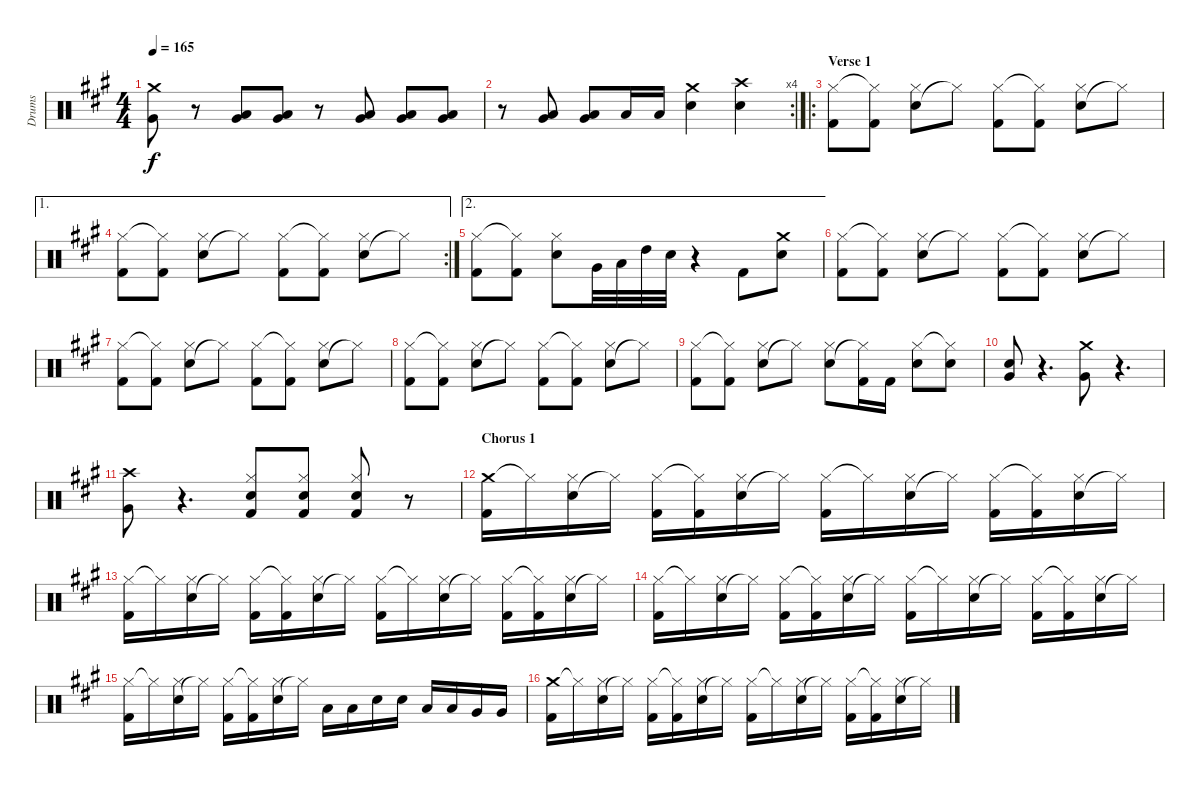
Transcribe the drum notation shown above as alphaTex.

\track ("Drums" "Drums") {instrument percussion}
\staff {score}
\articulation defaults
\ts (4 4)
\tempo 165
\clef neutral
\ks a
("Crash medium (hit)" "Very Low Tom (hit)").8{dy f} r.8 ("Low Tom (hit)" "Very Low Tom (hit)").8 ("Low Tom (hit)" "Very Low Tom (hit)").8 r.8 ("Low Tom (hit)" "Very Low Tom (hit)").8 ("Low Tom (hit)" "Very Low Tom (hit)").8 ("Low Tom (hit)" "Very Low Tom (hit)").8 |
\rc 4
r.8 ("Low Tom (hit)" "Very Low Tom (hit)").8 ("Low Tom (hit)" "Very Low Tom (hit)").8 "Low Tom (hit)".16 "Low Tom (hit)".16 ("Crash medium (hit)" "Electric Snare (hit)").4 ("Crash high (hit)" "Electric Snare (hit)").4 |
\ro
\section ("" "Verse 1")
("Hi-Hat (closed)" "Kick (hit) 2").8 ("Hi-Hat (closed)"{t} "Kick (hit) 2").8 ("Electric Snare (hit)" "Hi-Hat (closed)").8 "Hi-Hat (closed)"{t}.8 ("Hi-Hat (closed)" "Kick (hit) 2").8 ("Hi-Hat (closed)"{t} "Kick (hit) 2").8 ("Electric Snare (hit)" "Hi-Hat (closed)").8 "Hi-Hat (closed)"{t}.8 |
\ae 1
\rc 2
("Hi-Hat (closed)" "Kick (hit) 2").8 ("Hi-Hat (closed)"{t} "Kick (hit) 2").8 ("Electric Snare (hit)" "Hi-Hat (closed)").8 "Hi-Hat (closed)"{t}.8 ("Hi-Hat (closed)" "Kick (hit) 2").8 ("Hi-Hat (closed)"{t} "Kick (hit) 2").8 ("Electric Snare (hit)" "Hi-Hat (closed)").8 "Hi-Hat (closed)"{t}.8 |
\ae 2
("Hi-Hat (closed)" "Kick (hit) 2").8 ("Hi-Hat (closed)"{t} "Kick (hit) 2").8 ("Electric Snare (hit)" "Hi-Hat (closed)").8 "Very Low Tom (hit)".32 "Low Tom (hit)".32 "High Tom (hit)".32 "Electric Snare (hit)".32 r.4 "Kick (hit) 2".8 ("Electric Snare (hit)" "Crash medium (hit)").8 |
("Hi-Hat (closed)" "Kick (hit) 2").8 ("Hi-Hat (closed)"{t} "Kick (hit) 2").8 ("Electric Snare (hit)" "Hi-Hat (closed)").8 "Hi-Hat (closed)"{t}.8 ("Hi-Hat (closed)" "Kick (hit) 2").8 ("Hi-Hat (closed)"{t} "Kick (hit) 2").8 ("Electric Snare (hit)" "Hi-Hat (closed)").8 "Hi-Hat (closed)"{t}.8 |
("Hi-Hat (closed)" "Kick (hit) 2").8 ("Hi-Hat (closed)"{t} "Kick (hit) 2").8 ("Electric Snare (hit)" "Hi-Hat (closed)").8 "Hi-Hat (closed)"{t}.8 ("Hi-Hat (closed)" "Kick (hit) 2").8 ("Hi-Hat (closed)"{t} "Kick (hit) 2").8 ("Electric Snare (hit)" "Hi-Hat (closed)").8 "Hi-Hat (closed)"{t}.8 |
("Hi-Hat (closed)" "Kick (hit) 2").8 ("Hi-Hat (closed)"{t} "Kick (hit) 2").8 ("Electric Snare (hit)" "Hi-Hat (closed)").8 "Hi-Hat (closed)"{t}.8 ("Hi-Hat (closed)" "Kick (hit) 2").8 ("Hi-Hat (closed)"{t} "Kick (hit) 2").8 ("Electric Snare (hit)" "Hi-Hat (closed)").8 "Hi-Hat (closed)"{t}.8 |
("Hi-Hat (closed)" "Kick (hit) 2").8 ("Hi-Hat (closed)"{t} "Kick (hit) 2").8 ("Electric Snare (hit)" "Hi-Hat (closed)").8 "Hi-Hat (closed)"{t}.8 ("Electric Snare (hit)" "Hi-Hat (closed)").8 ("Hi-Hat (closed)"{t} "Kick (hit) 2").16 "Kick (hit) 2".16 ("Electric Snare (hit)" "Hi-Hat (closed)").8 ("Electric Snare (hit)" "Hi-Hat (closed)"{t}).8 |
("Very Low Tom (hit)" "Electric Snare (hit)").8 r.4{d} ("Crash medium (hit)" "Very Low Tom (hit)").8 r.4{d} |
("Crash high (hit)" "Very Low Tom (hit)").8 r.4{d} ("Electric Snare (hit)" "Hi-Hat (closed)" "Kick (hit) 2").8 ("Electric Snare (hit)" "Hi-Hat (closed)" "Kick (hit) 2").8 ("Electric Snare (hit)" "Hi-Hat (closed)" "Kick (hit) 2").8 r.8 |
\section ("" "Chorus 1")
("Crash medium (hit)" "Kick (hit) 2").16 "Hi-Hat (closed)"{t}.16 ("Electric Snare (hit)" "Hi-Hat (closed)").16 "Hi-Hat (closed)"{t}.16 ("Hi-Hat (closed)" "Kick (hit) 2").16 ("Hi-Hat (closed)"{t} "Kick (hit) 2").16 ("Electric Snare (hit)" "Hi-Hat (closed)").16 "Hi-Hat (closed)"{t}.16 ("Hi-Hat (closed)" "Kick (hit) 2").16 "Hi-Hat (closed)"{t}.16 ("Electric Snare (hit)" "Hi-Hat (closed)").16 "Hi-Hat (closed)"{t}.16 ("Hi-Hat (closed)" "Kick (hit) 2").16 ("Hi-Hat (closed)"{t} "Kick (hit) 2").16 ("Electric Snare (hit)" "Hi-Hat (closed)").16 "Hi-Hat (closed)"{t}.16 |
("Hi-Hat (closed)" "Kick (hit) 2").16 "Hi-Hat (closed)"{t}.16 ("Electric Snare (hit)" "Hi-Hat (closed)").16 "Hi-Hat (closed)"{t}.16 ("Hi-Hat (closed)" "Kick (hit) 2").16 ("Hi-Hat (closed)"{t} "Kick (hit) 2").16 ("Electric Snare (hit)" "Hi-Hat (closed)").16 "Hi-Hat (closed)"{t}.16 ("Hi-Hat (closed)" "Kick (hit) 2").16 "Hi-Hat (closed)"{t}.16 ("Electric Snare (hit)" "Hi-Hat (closed)").16 "Hi-Hat (closed)"{t}.16 ("Hi-Hat (closed)" "Kick (hit) 2").16 ("Hi-Hat (closed)"{t} "Kick (hit) 2").16 ("Electric Snare (hit)" "Hi-Hat (closed)").16 "Hi-Hat (closed)"{t}.16 |
("Hi-Hat (closed)" "Kick (hit) 2").16 "Hi-Hat (closed)"{t}.16 ("Electric Snare (hit)" "Hi-Hat (closed)").16 "Hi-Hat (closed)"{t}.16 ("Hi-Hat (closed)" "Kick (hit) 2").16 ("Hi-Hat (closed)"{t} "Kick (hit) 2").16 ("Electric Snare (hit)" "Hi-Hat (closed)").16 "Hi-Hat (closed)"{t}.16 ("Hi-Hat (closed)" "Kick (hit) 2").16 "Hi-Hat (closed)"{t}.16 ("Electric Snare (hit)" "Hi-Hat (closed)").16 "Hi-Hat (closed)"{t}.16 ("Hi-Hat (closed)" "Kick (hit) 2").16 ("Hi-Hat (closed)"{t} "Kick (hit) 2").16 ("Electric Snare (hit)" "Hi-Hat (closed)").16 "Hi-Hat (closed)"{t}.16 |
("Hi-Hat (closed)" "Kick (hit) 2").16 "Hi-Hat (closed)"{t}.16 ("Electric Snare (hit)" "Hi-Hat (closed)").16 "Hi-Hat (closed)"{t}.16 ("Hi-Hat (closed)" "Kick (hit) 2").16 ("Hi-Hat (closed)"{t} "Kick (hit) 2").16 ("Electric Snare (hit)" "Hi-Hat (closed)").16 "Hi-Hat (closed)"{t}.16 "Low Tom (hit)".16 "Low Tom (hit)".16 "Electric Snare (hit)".16 "Electric Snare (hit)".16 "Low Tom (hit)".16 "Low Tom (hit)".16 "Very Low Tom (hit)".16 "Very Low Tom (hit)".16 |
("Crash medium (hit)" "Kick (hit) 2").16 "Hi-Hat (closed)"{t}.16 ("Electric Snare (hit)" "Hi-Hat (closed)").16 "Hi-Hat (closed)"{t}.16 ("Hi-Hat (closed)" "Kick (hit) 2").16 ("Hi-Hat (closed)"{t} "Kick (hit) 2").16 ("Electric Snare (hit)" "Hi-Hat (closed)").16 "Hi-Hat (closed)"{t}.16 ("Hi-Hat (closed)" "Kick (hit) 2").16 "Hi-Hat (closed)"{t}.16 ("Electric Snare (hit)" "Hi-Hat (closed)").16 "Hi-Hat (closed)"{t}.16 ("Hi-Hat (closed)" "Kick (hit) 2").16 ("Hi-Hat (closed)"{t} "Kick (hit) 2").16 ("Electric Snare (hit)" "Hi-Hat (closed)").16 "Hi-Hat (closed)"{t}.16
